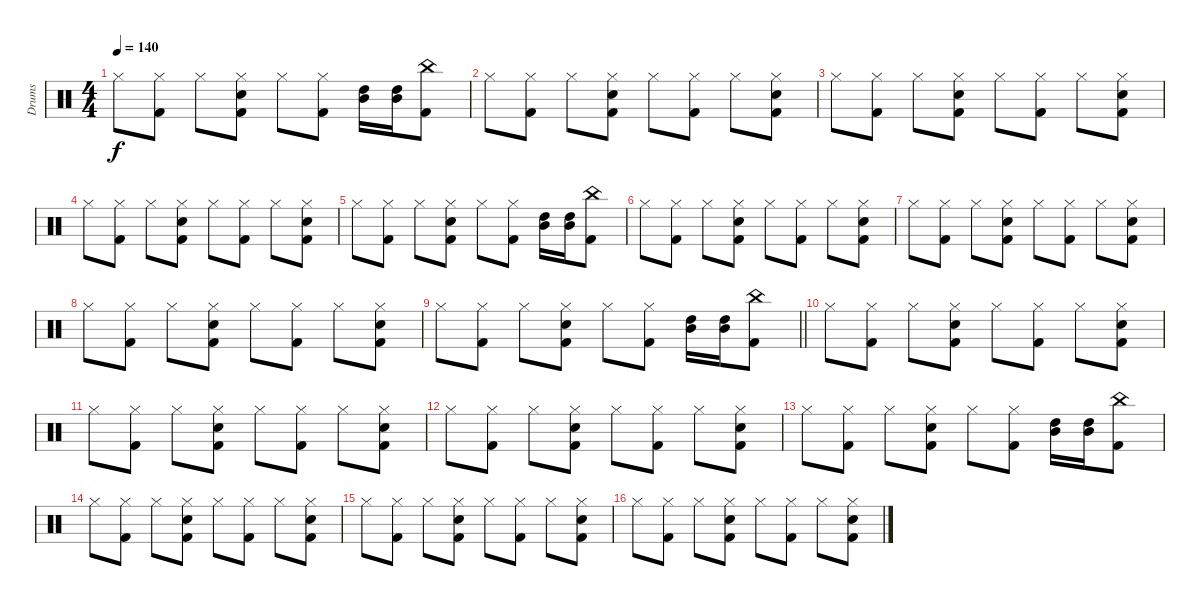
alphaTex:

\track ("Drums" "Drums") {instrument percussion}
\staff {score}
\articulation defaults
\ts (4 4)
\tempo 140
\clef neutral
\ks c "Hi-Hat (closed)".8{dy f}
("Hi-Hat (closed)" "Kick (hit) 2").8 "Hi-Hat (closed)".8 ("Hi-Hat (closed)" "Snare (hit) 2" "Kick (hit) 2").8 "Hi-Hat (closed)".8 ("Hi-Hat (closed)" "Kick (hit) 2").8 ("Mid Tom (hit)" "High Tom (hit)").16 ("Mid Tom (hit)" "High Tom (hit)").16 ("China (hit)" "Kick (hit) 2").8 |
"Hi-Hat (closed)".8 ("Hi-Hat (closed)" "Kick (hit) 2").8 "Hi-Hat (closed)".8 ("Hi-Hat (closed)" "Snare (hit) 2" "Kick (hit) 2").8 "Hi-Hat (closed)".8 ("Hi-Hat (closed)" "Kick (hit) 2").8 "Hi-Hat (closed)".8 ("Hi-Hat (closed)" "Snare (hit) 2" "Kick (hit) 2").8 |
"Hi-Hat (closed)".8 ("Hi-Hat (closed)" "Kick (hit) 2").8 "Hi-Hat (closed)".8 ("Hi-Hat (closed)" "Snare (hit) 2" "Kick (hit) 2").8 "Hi-Hat (closed)".8 ("Hi-Hat (closed)" "Kick (hit) 2").8 "Hi-Hat (closed)".8 ("Hi-Hat (closed)" "Snare (hit) 2" "Kick (hit) 2").8 |
"Hi-Hat (closed)".8 ("Hi-Hat (closed)" "Kick (hit) 2").8 "Hi-Hat (closed)".8 ("Hi-Hat (closed)" "Snare (hit) 2" "Kick (hit) 2").8 "Hi-Hat (closed)".8 ("Hi-Hat (closed)" "Kick (hit) 2").8 "Hi-Hat (closed)".8 ("Hi-Hat (closed)" "Snare (hit) 2" "Kick (hit) 2").8 |
"Hi-Hat (closed)".8 ("Hi-Hat (closed)" "Kick (hit) 2").8 "Hi-Hat (closed)".8 ("Hi-Hat (closed)" "Snare (hit) 2" "Kick (hit) 2").8 "Hi-Hat (closed)".8 ("Hi-Hat (closed)" "Kick (hit) 2").8 ("Mid Tom (hit)" "High Tom (hit)").16 ("Mid Tom (hit)" "High Tom (hit)").16 ("China (hit)" "Kick (hit) 2").8 |
"Hi-Hat (closed)".8 ("Hi-Hat (closed)" "Kick (hit) 2").8 "Hi-Hat (closed)".8 ("Hi-Hat (closed)" "Snare (hit) 2" "Kick (hit) 2").8 "Hi-Hat (closed)".8 ("Hi-Hat (closed)" "Kick (hit) 2").8 "Hi-Hat (closed)".8 ("Hi-Hat (closed)" "Snare (hit) 2" "Kick (hit) 2").8 |
"Hi-Hat (closed)".8 ("Hi-Hat (closed)" "Kick (hit) 2").8 "Hi-Hat (closed)".8 ("Hi-Hat (closed)" "Snare (hit) 2" "Kick (hit) 2").8 "Hi-Hat (closed)".8 ("Hi-Hat (closed)" "Kick (hit) 2").8 "Hi-Hat (closed)".8 ("Hi-Hat (closed)" "Snare (hit) 2" "Kick (hit) 2").8 |
"Hi-Hat (closed)".8 ("Hi-Hat (closed)" "Kick (hit) 2").8 "Hi-Hat (closed)".8 ("Hi-Hat (closed)" "Snare (hit) 2" "Kick (hit) 2").8 "Hi-Hat (closed)".8 ("Hi-Hat (closed)" "Kick (hit) 2").8 "Hi-Hat (closed)".8 ("Hi-Hat (closed)" "Snare (hit) 2" "Kick (hit) 2").8 |
\barLineRight lightlight "Hi-Hat (closed)".8
("Hi-Hat (closed)" "Kick (hit) 2").8 "Hi-Hat (closed)".8 ("Hi-Hat (closed)" "Snare (hit) 2" "Kick (hit) 2").8 "Hi-Hat (closed)".8 ("Hi-Hat (closed)" "Kick (hit) 2").8 ("Mid Tom (hit)" "High Tom (hit)").16 ("Mid Tom (hit)" "High Tom (hit)").16 ("China (hit)" "Kick (hit) 2").8 |
"Hi-Hat (closed)".8 ("Hi-Hat (closed)" "Kick (hit) 2").8 "Hi-Hat (closed)".8 ("Hi-Hat (closed)" "Snare (hit) 2" "Kick (hit) 2").8 "Hi-Hat (closed)".8 ("Hi-Hat (closed)" "Kick (hit) 2").8 "Hi-Hat (closed)".8 ("Hi-Hat (closed)" "Snare (hit) 2" "Kick (hit) 2").8 |
"Hi-Hat (closed)".8 ("Hi-Hat (closed)" "Kick (hit) 2").8 "Hi-Hat (closed)".8 ("Hi-Hat (closed)" "Snare (hit) 2" "Kick (hit) 2").8 "Hi-Hat (closed)".8 ("Hi-Hat (closed)" "Kick (hit) 2").8 "Hi-Hat (closed)".8 ("Hi-Hat (closed)" "Snare (hit) 2" "Kick (hit) 2").8 |
"Hi-Hat (closed)".8 ("Hi-Hat (closed)" "Kick (hit) 2").8 "Hi-Hat (closed)".8 ("Hi-Hat (closed)" "Snare (hit) 2" "Kick (hit) 2").8 "Hi-Hat (closed)".8 ("Hi-Hat (closed)" "Kick (hit) 2").8 "Hi-Hat (closed)".8 ("Hi-Hat (closed)" "Snare (hit) 2" "Kick (hit) 2").8 |
"Hi-Hat (closed)".8 ("Hi-Hat (closed)" "Kick (hit) 2").8 "Hi-Hat (closed)".8 ("Hi-Hat (closed)" "Snare (hit) 2" "Kick (hit) 2").8 "Hi-Hat (closed)".8 ("Hi-Hat (closed)" "Kick (hit) 2").8 ("Mid Tom (hit)" "High Tom (hit)").16 ("Mid Tom (hit)" "High Tom (hit)").16 ("China (hit)" "Kick (hit) 2").8 |
"Hi-Hat (closed)".8 ("Hi-Hat (closed)" "Kick (hit) 2").8 "Hi-Hat (closed)".8 ("Hi-Hat (closed)" "Snare (hit) 2" "Kick (hit) 2").8 "Hi-Hat (closed)".8 ("Hi-Hat (closed)" "Kick (hit) 2").8 "Hi-Hat (closed)".8 ("Hi-Hat (closed)" "Snare (hit) 2" "Kick (hit) 2").8 |
"Hi-Hat (closed)".8 ("Hi-Hat (closed)" "Kick (hit) 2").8 "Hi-Hat (closed)".8 ("Hi-Hat (closed)" "Snare (hit) 2" "Kick (hit) 2").8 "Hi-Hat (closed)".8 ("Hi-Hat (closed)" "Kick (hit) 2").8 "Hi-Hat (closed)".8 ("Hi-Hat (closed)" "Snare (hit) 2" "Kick (hit) 2").8 |
"Hi-Hat (closed)".8 ("Hi-Hat (closed)" "Kick (hit) 2").8 "Hi-Hat (closed)".8 ("Hi-Hat (closed)" "Snare (hit) 2" "Kick (hit) 2").8 "Hi-Hat (closed)".8 ("Hi-Hat (closed)" "Kick (hit) 2").8 "Hi-Hat (closed)".8 ("Hi-Hat (closed)" "Snare (hit) 2" "Kick (hit) 2").8
